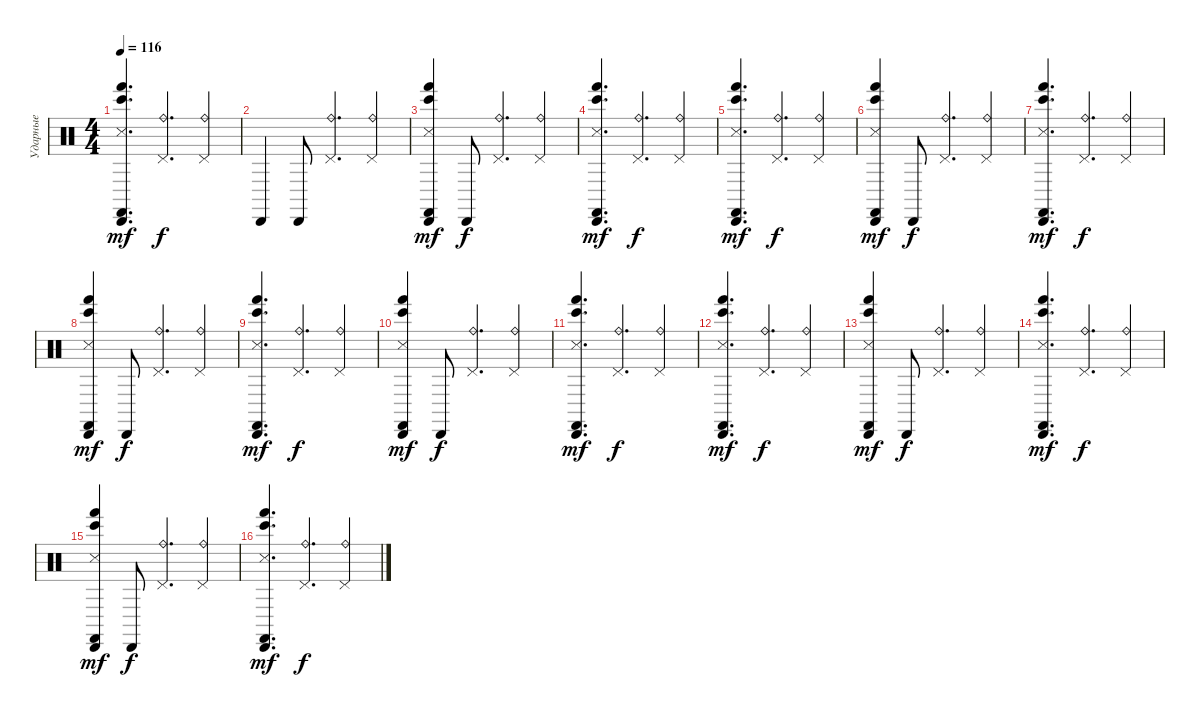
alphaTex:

\track ("Ударные" "Ударные") {instrument percussion}
\staff {score}
\articulation defaults
\ts (4 4)
\tempo 116
\clef neutral
\ks c
("Castanets (hit)" "Hand (hit)" "Snare (side stick) 3" "Bongo High (hit)" "Cabasa (hit)").4{d dy mf} ("Pedal Hi-Hat (hit)" "Ride (bell)").4{d dy f} ("Pedal Hi-Hat (hit)" "Ride (bell)").4 |
"Cabasa (hit)".4 "Cabasa (hit)".8 ("Pedal Hi-Hat (hit)" "Ride (bell)").4{d} ("Pedal Hi-Hat (hit)" "Ride (bell)").4 |
("Castanets (hit)" "Hand (hit)" "Snare (side stick) 3" "Bongo High (hit)" "Cabasa (hit)").4{dy mf} "Cabasa (hit)".8{dy f} ("Pedal Hi-Hat (hit)" "Ride (bell)").4{d} ("Pedal Hi-Hat (hit)" "Ride (bell)").4 |
("Castanets (hit)" "Hand (hit)" "Snare (side stick) 3" "Bongo High (hit)" "Cabasa (hit)").4{d dy mf} ("Pedal Hi-Hat (hit)" "Ride (bell)").4{d dy f} ("Pedal Hi-Hat (hit)" "Ride (bell)").4 |
("Castanets (hit)" "Hand (hit)" "Snare (side stick) 3" "Bongo High (hit)" "Cabasa (hit)").4{d dy mf} ("Pedal Hi-Hat (hit)" "Ride (bell)").4{d dy f} ("Pedal Hi-Hat (hit)" "Ride (bell)").4 |
("Castanets (hit)" "Hand (hit)" "Snare (side stick) 3" "Bongo High (hit)" "Cabasa (hit)").4{dy mf} "Cabasa (hit)".8{dy f} ("Pedal Hi-Hat (hit)" "Ride (bell)").4{d} ("Pedal Hi-Hat (hit)" "Ride (bell)").4 |
("Castanets (hit)" "Hand (hit)" "Snare (side stick) 3" "Bongo High (hit)" "Cabasa (hit)").4{d dy mf} ("Pedal Hi-Hat (hit)" "Ride (bell)").4{d dy f} ("Pedal Hi-Hat (hit)" "Ride (bell)").4 |
("Castanets (hit)" "Hand (hit)" "Snare (side stick) 3" "Bongo High (hit)" "Cabasa (hit)").4{dy mf} "Cabasa (hit)".8{dy f} ("Pedal Hi-Hat (hit)" "Ride (bell)").4{d} ("Pedal Hi-Hat (hit)" "Ride (bell)").4 |
("Castanets (hit)" "Hand (hit)" "Snare (side stick) 3" "Bongo High (hit)" "Cabasa (hit)").4{d dy mf} ("Pedal Hi-Hat (hit)" "Ride (bell)").4{d dy f} ("Pedal Hi-Hat (hit)" "Ride (bell)").4 |
("Castanets (hit)" "Hand (hit)" "Snare (side stick) 3" "Bongo High (hit)" "Cabasa (hit)").4{dy mf} "Cabasa (hit)".8{dy f} ("Pedal Hi-Hat (hit)" "Ride (bell)").4{d} ("Pedal Hi-Hat (hit)" "Ride (bell)").4 |
("Castanets (hit)" "Hand (hit)" "Snare (side stick) 3" "Bongo High (hit)" "Cabasa (hit)").4{d dy mf} ("Pedal Hi-Hat (hit)" "Ride (bell)").4{d dy f} ("Pedal Hi-Hat (hit)" "Ride (bell)").4 |
("Castanets (hit)" "Hand (hit)" "Snare (side stick) 3" "Bongo High (hit)" "Cabasa (hit)").4{d dy mf} ("Pedal Hi-Hat (hit)" "Ride (bell)").4{d dy f} ("Pedal Hi-Hat (hit)" "Ride (bell)").4 |
("Castanets (hit)" "Hand (hit)" "Snare (side stick) 3" "Bongo High (hit)" "Cabasa (hit)").4{dy mf} "Cabasa (hit)".8{dy f} ("Pedal Hi-Hat (hit)" "Ride (bell)").4{d} ("Pedal Hi-Hat (hit)" "Ride (bell)").4 |
("Castanets (hit)" "Hand (hit)" "Snare (side stick) 3" "Bongo High (hit)" "Cabasa (hit)").4{d dy mf} ("Pedal Hi-Hat (hit)" "Ride (bell)").4{d dy f} ("Pedal Hi-Hat (hit)" "Ride (bell)").4 |
("Castanets (hit)" "Hand (hit)" "Snare (side stick) 3" "Bongo High (hit)" "Cabasa (hit)").4{dy mf} "Cabasa (hit)".8{dy f} ("Pedal Hi-Hat (hit)" "Ride (bell)").4{d} ("Pedal Hi-Hat (hit)" "Ride (bell)").4 |
("Castanets (hit)" "Hand (hit)" "Snare (side stick) 3" "Bongo High (hit)" "Cabasa (hit)").4{d dy mf} ("Pedal Hi-Hat (hit)" "Ride (bell)").4{d dy f} ("Pedal Hi-Hat (hit)" "Ride (bell)").4
